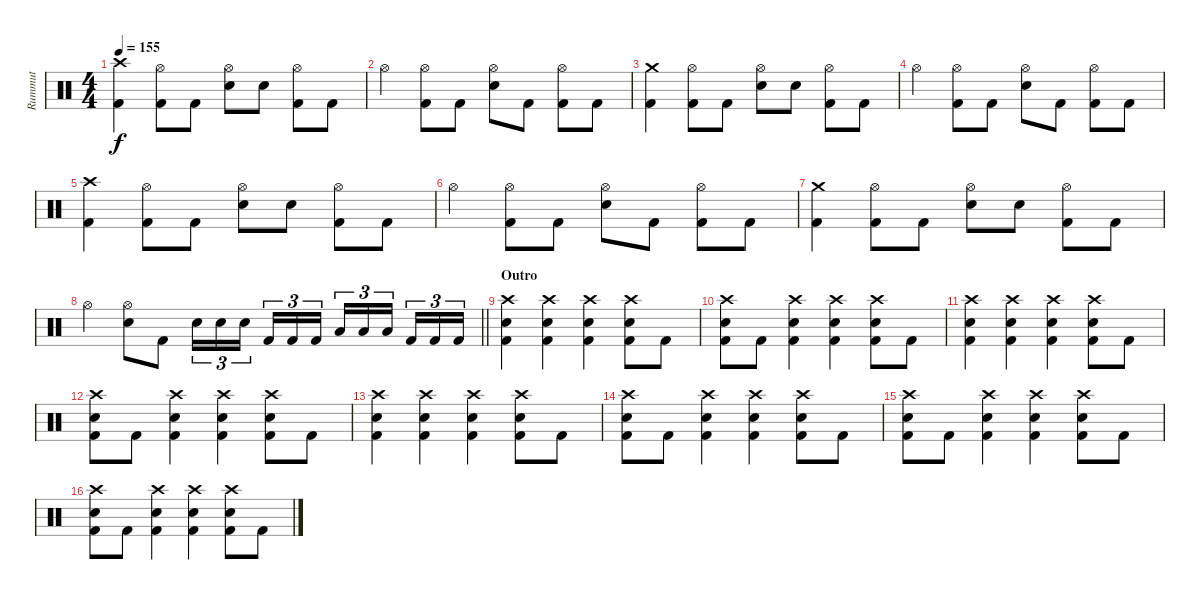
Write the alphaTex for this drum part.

\track ("Rummut" "Rummut") {instrument percussion}
\staff {score}
\articulation defaults
\ts (4 4)
\tempo 155
\clef neutral
\ks c
("Crash high (hit)" "Kick (hit) 2").4{dy f} ("Hi-Hat (open)" "Kick (hit) 2").8 "Kick (hit) 2".8 ("Hi-Hat (open)" "Electric Snare (hit)").8 "Electric Snare (hit)".8 ("Hi-Hat (open)" "Kick (hit) 2").8 "Kick (hit) 2".8 |
"Hi-Hat (open)".4 ("Hi-Hat (open)" "Kick (hit) 2").8 "Kick (hit) 2".8 ("Hi-Hat (open)" "Electric Snare (hit)").8 "Kick (hit) 2".8 ("Hi-Hat (open)" "Kick (hit) 2").8 "Kick (hit) 2".8 |
("Crash medium (hit)" "Kick (hit) 2").4 ("Hi-Hat (open)" "Kick (hit) 2").8 "Kick (hit) 2".8 ("Hi-Hat (open)" "Electric Snare (hit)").8 "Electric Snare (hit)".8 ("Hi-Hat (open)" "Kick (hit) 2").8 "Kick (hit) 2".8 |
"Hi-Hat (open)".4 ("Hi-Hat (open)" "Kick (hit) 2").8 "Kick (hit) 2".8 ("Hi-Hat (open)" "Electric Snare (hit)").8 "Kick (hit) 2".8 ("Hi-Hat (open)" "Kick (hit) 2").8 "Kick (hit) 2".8 |
("Crash high (hit)" "Kick (hit) 2").4 ("Hi-Hat (open)" "Kick (hit) 2").8 "Kick (hit) 2".8 ("Hi-Hat (open)" "Electric Snare (hit)").8 "Electric Snare (hit)".8 ("Hi-Hat (open)" "Kick (hit) 2").8 "Kick (hit) 2".8 |
"Hi-Hat (open)".4 ("Hi-Hat (open)" "Kick (hit) 2").8 "Kick (hit) 2".8 ("Hi-Hat (open)" "Electric Snare (hit)").8 "Kick (hit) 2".8 ("Hi-Hat (open)" "Kick (hit) 2").8 "Kick (hit) 2".8 |
("Crash medium (hit)" "Kick (hit) 2").4 ("Hi-Hat (open)" "Kick (hit) 2").8 "Kick (hit) 2".8 ("Hi-Hat (open)" "Electric Snare (hit)").8 "Electric Snare (hit)".8 ("Hi-Hat (open)" "Kick (hit) 2").8 "Kick (hit) 2".8 |
\barLineRight lightlight "Hi-Hat (open)".4
("Hi-Hat (open)" "Electric Snare (hit)").8 "Kick (hit) 2".8 "Electric Snare (hit)".16{tu (3 2)} "Electric Snare (hit)".16{tu (3 2)} "Electric Snare (hit)".16{tu (3 2) beam splitsecondary} "Kick (hit) 2".16{tu (3 2)} "Kick (hit) 2".16{tu (3 2)} "Kick (hit) 2".16{tu (3 2)} "Low Tom (hit)".16{tu (3 2)} "Low Tom (hit)".16{tu (3 2)} "Low Tom (hit)".16{tu (3 2) beam splitsecondary} "Kick (hit) 2".16{tu (3 2)} "Kick (hit) 2".16{tu (3 2)} "Kick (hit) 2".16{tu (3 2)} |
\section ("" "Outro")
("Crash high (hit)" "Electric Snare (hit)" "Kick (hit) 2").4 ("Crash high (hit)" "Electric Snare (hit)" "Kick (hit) 2").4 ("Crash high (hit)" "Electric Snare (hit)" "Kick (hit) 2").4 ("Crash high (hit)" "Electric Snare (hit)" "Kick (hit) 2").8 "Kick (hit) 2".8 |
("Crash high (hit)" "Electric Snare (hit)" "Kick (hit) 2").8 "Kick (hit) 2".8 ("Crash high (hit)" "Electric Snare (hit)" "Kick (hit) 2").4 ("Crash high (hit)" "Electric Snare (hit)" "Kick (hit) 2").4 ("Crash high (hit)" "Electric Snare (hit)" "Kick (hit) 2").8 "Kick (hit) 2".8 |
("Crash high (hit)" "Electric Snare (hit)" "Kick (hit) 2").4 ("Crash high (hit)" "Electric Snare (hit)" "Kick (hit) 2").4 ("Crash high (hit)" "Electric Snare (hit)" "Kick (hit) 2").4 ("Crash high (hit)" "Electric Snare (hit)" "Kick (hit) 2").8 "Kick (hit) 2".8 |
("Crash high (hit)" "Electric Snare (hit)" "Kick (hit) 2").8 "Kick (hit) 2".8 ("Crash high (hit)" "Electric Snare (hit)" "Kick (hit) 2").4 ("Crash high (hit)" "Electric Snare (hit)" "Kick (hit) 2").4 ("Crash high (hit)" "Electric Snare (hit)" "Kick (hit) 2").8 "Kick (hit) 2".8 |
("Crash high (hit)" "Electric Snare (hit)" "Kick (hit) 2").4 ("Crash high (hit)" "Electric Snare (hit)" "Kick (hit) 2").4 ("Crash high (hit)" "Electric Snare (hit)" "Kick (hit) 2").4 ("Crash high (hit)" "Electric Snare (hit)" "Kick (hit) 2").8 "Kick (hit) 2".8 |
("Crash high (hit)" "Electric Snare (hit)" "Kick (hit) 2").8 "Kick (hit) 2".8 ("Crash high (hit)" "Electric Snare (hit)" "Kick (hit) 2").4 ("Crash high (hit)" "Electric Snare (hit)" "Kick (hit) 2").4 ("Crash high (hit)" "Electric Snare (hit)" "Kick (hit) 2").8 "Kick (hit) 2".8 |
("Crash high (hit)" "Electric Snare (hit)" "Kick (hit) 2").8 "Kick (hit) 2".8 ("Crash high (hit)" "Electric Snare (hit)" "Kick (hit) 2").4 ("Crash high (hit)" "Electric Snare (hit)" "Kick (hit) 2").4 ("Crash high (hit)" "Electric Snare (hit)" "Kick (hit) 2").8 "Kick (hit) 2".8 |
("Crash high (hit)" "Electric Snare (hit)" "Kick (hit) 2").8 "Kick (hit) 2".8 ("Crash high (hit)" "Electric Snare (hit)" "Kick (hit) 2").4 ("Crash high (hit)" "Electric Snare (hit)" "Kick (hit) 2").4 ("Crash high (hit)" "Electric Snare (hit)" "Kick (hit) 2").8 "Kick (hit) 2".8
